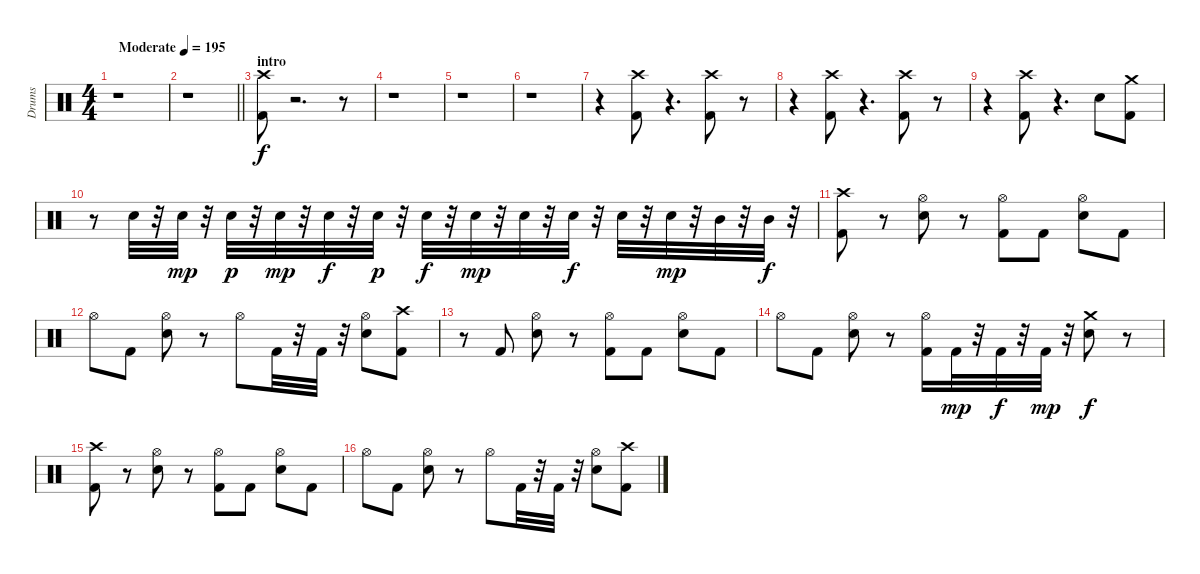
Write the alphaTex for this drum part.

\track ("Drums" "Drums") {instrument percussion}
\staff {score}
\articulation defaults
\ts (4 4)
\tempo (195 "Moderate")
\clef neutral
\ks c
r.1{dy f} |
\barLineRight lightlight
r.1 |
\section ("" "intro")
("Kick (hit) 2" "Crash high (hit)").8 r.2{d} r.8 |
r.1 |
r.1 |
r.1 |
r.4 ("Kick (hit) 2" "Crash high (hit)").8 r.4{d} ("Kick (hit) 2" "Crash high (hit)").8 r.8 |
r.4 ("Kick (hit) 2" "Crash high (hit)").8 r.4{d} ("Kick (hit) 2" "Crash high (hit)").8 r.8 |
r.4 ("Kick (hit) 2" "Crash high (hit)").8 r.4{d} "Electric Snare (hit)".8 ("Kick (hit) 2" "Crash medium (hit)").8 |
r.8 "Electric Snare (hit)".32 r.32 "Electric Snare (hit)".32{dy mp} r.32 "Electric Snare (hit)".32{dy p} r.32 "Electric Snare (hit)".32{dy mp} r.32 "Electric Snare (hit)".32{dy f} r.32 "Electric Snare (hit)".32{dy p} r.32 "Electric Snare (hit)".32{dy f} r.32 "Electric Snare (hit)".32{dy mp} r.32 "Electric Snare (hit)".32 r.32 "Electric Snare (hit)".32{dy f} r.32 "Electric Snare (hit)".32 r.32 "Electric Snare (hit)".32{dy mp} r.32 "Mid Tom (hit)".32 r.32 "Mid Tom (hit)".32{dy f} r.32 |
("Kick (hit) 2" "Crash high (hit)").8 r.8 ("Electric Snare (hit)" "Hi-Hat (open)").8 r.8 ("Hi-Hat (open)" "Kick (hit) 2").8 "Kick (hit) 2".8 ("Electric Snare (hit)" "Hi-Hat (open)").8 "Kick (hit) 2".8 |
"Hi-Hat (open)".8 "Kick (hit) 2".8 ("Electric Snare (hit)" "Hi-Hat (open)").8 r.8 "Hi-Hat (open)".8 "Kick (hit) 2".32 r.32 "Kick (hit) 2".32 r.32 ("Electric Snare (hit)" "Hi-Hat (open)").8 ("Kick (hit) 2" "Crash high (hit)").8 |
r.8 "Kick (hit) 2".8 ("Electric Snare (hit)" "Hi-Hat (open)").8 r.8 ("Hi-Hat (open)" "Kick (hit) 2").8 "Kick (hit) 2".8 ("Electric Snare (hit)" "Hi-Hat (open)").8 "Kick (hit) 2".8 |
"Hi-Hat (open)".8 "Kick (hit) 2".8 ("Electric Snare (hit)" "Hi-Hat (open)").8 r.8 ("Kick (hit) 2" "Hi-Hat (open)").16 "Kick (hit) 2".32{dy mp} r.32 "Kick (hit) 2".32{dy f} r.32 "Kick (hit) 2".32{dy mp} r.32 ("Electric Snare (hit)" "Crash medium (hit)").8{dy f} r.8 |
("Kick (hit) 2" "Crash high (hit)").8 r.8 ("Electric Snare (hit)" "Hi-Hat (open)").8 r.8 ("Hi-Hat (open)" "Kick (hit) 2").8 "Kick (hit) 2".8 ("Electric Snare (hit)" "Hi-Hat (open)").8 "Kick (hit) 2".8 |
"Hi-Hat (open)".8 "Kick (hit) 2".8 ("Electric Snare (hit)" "Hi-Hat (open)").8 r.8 "Hi-Hat (open)".8 "Kick (hit) 2".32 r.32 "Kick (hit) 2".32 r.32 ("Electric Snare (hit)" "Hi-Hat (open)").8 ("Kick (hit) 2" "Crash high (hit)").8
